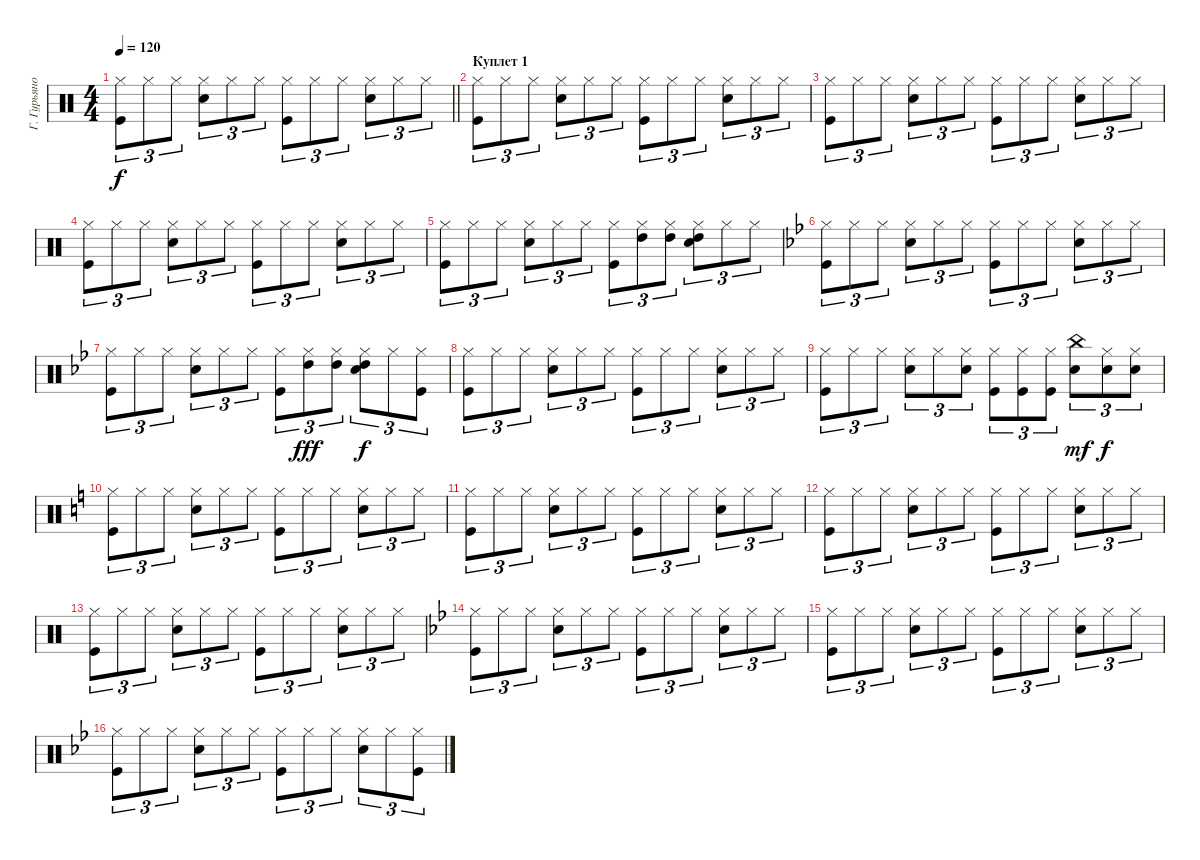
\track ("Г. Гурьянов" "Г. Гурьяно") {instrument percussion}
\staff
\articulation defaults
\ts (4 4)
\tempo 120
\clef neutral
\barLineRight lightlight
\ks c
("Hi-Hat (closed)" "Kick (hit)").8{tu (3 2) dy f} "Hi-Hat (closed)".8{tu (3 2)} "Hi-Hat (closed)".8{tu (3 2)} ("Hi-Hat (closed)" "Snare (hit) 2").8{tu (3 2)} "Hi-Hat (closed)".8{tu (3 2)} "Hi-Hat (closed)".8{tu (3 2)} ("Hi-Hat (closed)" "Kick (hit)").8{tu (3 2)} "Hi-Hat (closed)".8{tu (3 2)} "Hi-Hat (closed)".8{tu (3 2)} ("Hi-Hat (closed)" "Snare (hit) 2").8{tu (3 2)} "Hi-Hat (closed)".8{tu (3 2)} "Hi-Hat (closed)".8{tu (3 2)} |
\section ("" "Куплет 1")
("Hi-Hat (closed)" "Kick (hit)").8{tu (3 2)} "Hi-Hat (closed)".8{tu (3 2)} "Hi-Hat (closed)".8{tu (3 2)} ("Hi-Hat (closed)" "Snare (hit) 2").8{tu (3 2)} "Hi-Hat (closed)".8{tu (3 2)} "Hi-Hat (closed)".8{tu (3 2)} ("Hi-Hat (closed)" "Kick (hit)").8{tu (3 2)} "Hi-Hat (closed)".8{tu (3 2)} "Hi-Hat (closed)".8{tu (3 2)} ("Hi-Hat (closed)" "Snare (hit) 2").8{tu (3 2)} "Hi-Hat (closed)".8{tu (3 2)} "Hi-Hat (closed)".8{tu (3 2)} |
("Hi-Hat (closed)" "Kick (hit)").8{tu (3 2)} "Hi-Hat (closed)".8{tu (3 2)} "Hi-Hat (closed)".8{tu (3 2)} ("Hi-Hat (closed)" "Snare (hit) 2").8{tu (3 2)} "Hi-Hat (closed)".8{tu (3 2)} "Hi-Hat (closed)".8{tu (3 2)} ("Hi-Hat (closed)" "Kick (hit)").8{tu (3 2)} "Hi-Hat (closed)".8{tu (3 2)} "Hi-Hat (closed)".8{tu (3 2)} ("Hi-Hat (closed)" "Snare (hit) 2").8{tu (3 2)} "Hi-Hat (closed)".8{tu (3 2)} "Hi-Hat (closed)".8{tu (3 2)} |
("Hi-Hat (closed)" "Kick (hit)").8{tu (3 2)} "Hi-Hat (closed)".8{tu (3 2)} "Hi-Hat (closed)".8{tu (3 2)} ("Hi-Hat (closed)" "Snare (hit) 2").8{tu (3 2)} "Hi-Hat (closed)".8{tu (3 2)} "Hi-Hat (closed)".8{tu (3 2)} ("Hi-Hat (closed)" "Kick (hit)").8{tu (3 2)} "Hi-Hat (closed)".8{tu (3 2)} "Hi-Hat (closed)".8{tu (3 2)} ("Hi-Hat (closed)" "Snare (hit) 2").8{tu (3 2)} "Hi-Hat (closed)".8{tu (3 2)} "Hi-Hat (closed)".8{tu (3 2)} |
("Hi-Hat (closed)" "Kick (hit)").8{tu (3 2)} "Hi-Hat (closed)".8{tu (3 2)} "Hi-Hat (closed)".8{tu (3 2)} ("Hi-Hat (closed)" "Snare (hit) 2").8{tu (3 2)} "Hi-Hat (closed)".8{tu (3 2)} "Hi-Hat (closed)".8{tu (3 2)} ("Hi-Hat (closed)" "Kick (hit)").8{tu (3 2)} ("Hi-Hat (closed)" "High Tom (hit)").8{tu (3 2)} ("Hi-Hat (closed)" "High Tom (hit)").8{tu (3 2)} ("Hi-Hat (closed)" "Snare (hit) 2" "High Tom (hit)").8{tu (3 2)} "Hi-Hat (closed)".8{tu (3 2)} "Hi-Hat (closed)".8{tu (3 2)} |
\ks gminor
("Hi-Hat (closed)" "Kick (hit)").8{tu (3 2)} "Hi-Hat (closed)".8{tu (3 2)} "Hi-Hat (closed)".8{tu (3 2)} ("Hi-Hat (closed)" "Snare (hit) 2").8{tu (3 2)} "Hi-Hat (closed)".8{tu (3 2)} "Hi-Hat (closed)".8{tu (3 2)} ("Hi-Hat (closed)" "Kick (hit)").8{tu (3 2)} "Hi-Hat (closed)".8{tu (3 2)} "Hi-Hat (closed)".8{tu (3 2)} ("Hi-Hat (closed)" "Snare (hit) 2").8{tu (3 2)} "Hi-Hat (closed)".8{tu (3 2)} "Hi-Hat (closed)".8{tu (3 2)} |
("Hi-Hat (closed)" "Kick (hit)").8{tu (3 2)} "Hi-Hat (closed)".8{tu (3 2)} "Hi-Hat (closed)".8{tu (3 2)} ("Hi-Hat (closed)" "Snare (hit) 2").8{tu (3 2)} "Hi-Hat (closed)".8{tu (3 2)} "Hi-Hat (closed)".8{tu (3 2)} ("Hi-Hat (closed)" "Kick (hit)").8{tu (3 2)} ("Hi-Hat (closed)" "High Tom (hit)").8{tu (3 2) dy fff} ("Hi-Hat (closed)" "High Tom (hit)").8{tu (3 2)} ("Hi-Hat (closed)" "Snare (hit) 2" "High Tom (hit)").8{tu (3 2) dy f} "Hi-Hat (closed)".8{tu (3 2)} ("Hi-Hat (closed)" "Kick (hit)").8{tu (3 2)} |
("Hi-Hat (closed)" "Kick (hit)").8{tu (3 2)} "Hi-Hat (closed)".8{tu (3 2)} "Hi-Hat (closed)".8{tu (3 2)} ("Hi-Hat (closed)" "Snare (hit) 2").8{tu (3 2)} "Hi-Hat (closed)".8{tu (3 2)} "Hi-Hat (closed)".8{tu (3 2)} ("Hi-Hat (closed)" "Kick (hit)").8{tu (3 2)} "Hi-Hat (closed)".8{tu (3 2)} "Hi-Hat (closed)".8{tu (3 2)} ("Hi-Hat (closed)" "Snare (hit) 2").8{tu (3 2)} "Hi-Hat (closed)".8{tu (3 2)} "Hi-Hat (closed)".8{tu (3 2)} |
("Hi-Hat (closed)" "Kick (hit)").8{tu (3 2)} "Hi-Hat (closed)".8{tu (3 2)} "Hi-Hat (closed)".8{tu (3 2)} ("Hi-Hat (closed)" "Snare (hit) 2").8{tu (3 2)} "Hi-Hat (closed)".8{tu (3 2)} ("Hi-Hat (closed)" "Snare (hit) 2").8{tu (3 2)} ("Hi-Hat (closed)" "Kick (hit)").8{tu (3 2)} ("Hi-Hat (closed)" "Kick (hit)").8{tu (3 2)} ("Hi-Hat (closed)" "Kick (hit)").8{tu (3 2)} ("Snare (hit) 2" "China (hit)").8{tu (3 2) dy mf} ("Hi-Hat (closed)" "Snare (hit) 2").8{tu (3 2) dy f} ("Hi-Hat (closed)" "Snare (hit) 2").8{tu (3 2)} |
\ks c
("Hi-Hat (closed)" "Kick (hit)").8{tu (3 2)} "Hi-Hat (closed)".8{tu (3 2)} "Hi-Hat (closed)".8{tu (3 2)} ("Hi-Hat (closed)" "Snare (hit) 2").8{tu (3 2)} "Hi-Hat (closed)".8{tu (3 2)} "Hi-Hat (closed)".8{tu (3 2)} ("Hi-Hat (closed)" "Kick (hit)").8{tu (3 2)} "Hi-Hat (closed)".8{tu (3 2)} "Hi-Hat (closed)".8{tu (3 2)} ("Hi-Hat (closed)" "Snare (hit) 2").8{tu (3 2)} "Hi-Hat (closed)".8{tu (3 2)} "Hi-Hat (closed)".8{tu (3 2)} |
("Hi-Hat (closed)" "Kick (hit)").8{tu (3 2)} "Hi-Hat (closed)".8{tu (3 2)} "Hi-Hat (closed)".8{tu (3 2)} ("Hi-Hat (closed)" "Snare (hit) 2").8{tu (3 2)} "Hi-Hat (closed)".8{tu (3 2)} "Hi-Hat (closed)".8{tu (3 2)} ("Hi-Hat (closed)" "Kick (hit)").8{tu (3 2)} "Hi-Hat (closed)".8{tu (3 2)} "Hi-Hat (closed)".8{tu (3 2)} ("Hi-Hat (closed)" "Snare (hit) 2").8{tu (3 2)} "Hi-Hat (closed)".8{tu (3 2)} "Hi-Hat (closed)".8{tu (3 2)} |
("Hi-Hat (closed)" "Kick (hit)").8{tu (3 2)} "Hi-Hat (closed)".8{tu (3 2)} "Hi-Hat (closed)".8{tu (3 2)} ("Hi-Hat (closed)" "Snare (hit) 2").8{tu (3 2)} "Hi-Hat (closed)".8{tu (3 2)} "Hi-Hat (closed)".8{tu (3 2)} ("Hi-Hat (closed)" "Kick (hit)").8{tu (3 2)} "Hi-Hat (closed)".8{tu (3 2)} "Hi-Hat (closed)".8{tu (3 2)} ("Hi-Hat (closed)" "Snare (hit) 2").8{tu (3 2)} "Hi-Hat (closed)".8{tu (3 2)} "Hi-Hat (closed)".8{tu (3 2)} |
("Hi-Hat (closed)" "Kick (hit)").8{tu (3 2)} "Hi-Hat (closed)".8{tu (3 2)} "Hi-Hat (closed)".8{tu (3 2)} ("Hi-Hat (closed)" "Snare (hit) 2").8{tu (3 2)} "Hi-Hat (closed)".8{tu (3 2)} "Hi-Hat (closed)".8{tu (3 2)} ("Hi-Hat (closed)" "Kick (hit)").8{tu (3 2)} "Hi-Hat (closed)".8{tu (3 2)} "Hi-Hat (closed)".8{tu (3 2)} ("Hi-Hat (closed)" "Snare (hit) 2").8{tu (3 2)} "Hi-Hat (closed)".8{tu (3 2)} "Hi-Hat (closed)".8{tu (3 2)} |
\ks gminor
("Hi-Hat (closed)" "Kick (hit)").8{tu (3 2)} "Hi-Hat (closed)".8{tu (3 2)} "Hi-Hat (closed)".8{tu (3 2)} ("Hi-Hat (closed)" "Snare (hit) 2").8{tu (3 2)} "Hi-Hat (closed)".8{tu (3 2)} "Hi-Hat (closed)".8{tu (3 2)} ("Hi-Hat (closed)" "Kick (hit)").8{tu (3 2)} "Hi-Hat (closed)".8{tu (3 2)} "Hi-Hat (closed)".8{tu (3 2)} ("Hi-Hat (closed)" "Snare (hit) 2").8{tu (3 2)} "Hi-Hat (closed)".8{tu (3 2)} "Hi-Hat (closed)".8{tu (3 2)} |
("Hi-Hat (closed)" "Kick (hit)").8{tu (3 2)} "Hi-Hat (closed)".8{tu (3 2)} "Hi-Hat (closed)".8{tu (3 2)} ("Hi-Hat (closed)" "Snare (hit) 2").8{tu (3 2)} "Hi-Hat (closed)".8{tu (3 2)} "Hi-Hat (closed)".8{tu (3 2)} ("Hi-Hat (closed)" "Kick (hit)").8{tu (3 2)} "Hi-Hat (closed)".8{tu (3 2)} "Hi-Hat (closed)".8{tu (3 2)} ("Hi-Hat (closed)" "Snare (hit) 2").8{tu (3 2)} "Hi-Hat (closed)".8{tu (3 2)} "Hi-Hat (closed)".8{tu (3 2)} |
("Hi-Hat (closed)" "Kick (hit)").8{tu (3 2)} "Hi-Hat (closed)".8{tu (3 2)} "Hi-Hat (closed)".8{tu (3 2)} ("Hi-Hat (closed)" "Snare (hit) 2").8{tu (3 2)} "Hi-Hat (closed)".8{tu (3 2)} "Hi-Hat (closed)".8{tu (3 2)} ("Hi-Hat (closed)" "Kick (hit)").8{tu (3 2)} "Hi-Hat (closed)".8{tu (3 2)} "Hi-Hat (closed)".8{tu (3 2)} ("Hi-Hat (closed)" "Snare (hit) 2").8{tu (3 2)} "Hi-Hat (closed)".8{tu (3 2)} ("Hi-Hat (closed)" "Kick (hit)").8{tu (3 2)}
